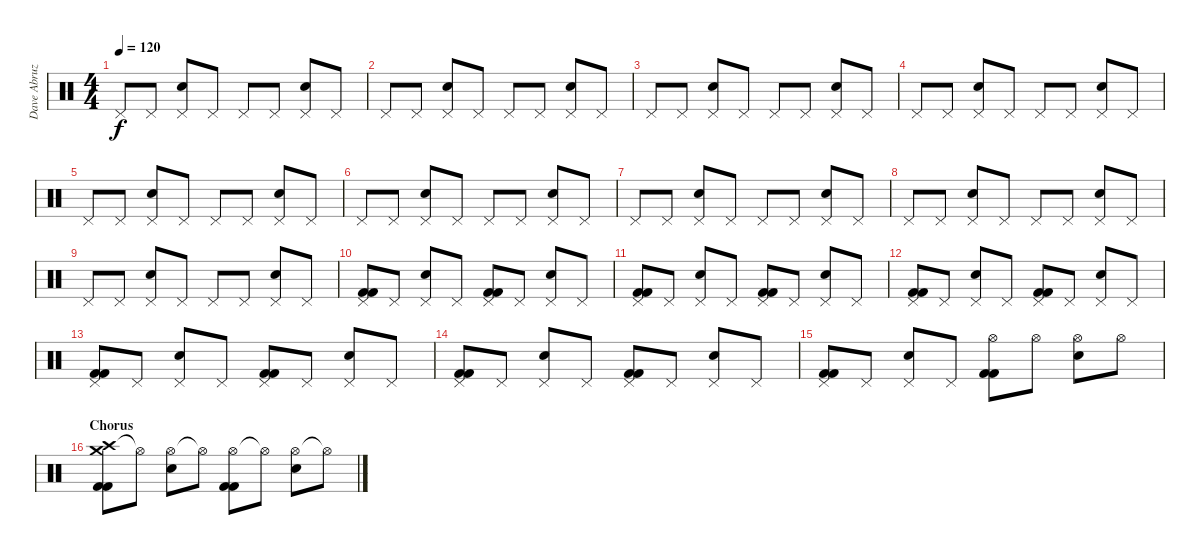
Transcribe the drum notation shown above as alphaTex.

\track ("Dave Abruzzese" "Dave Abruz") {instrument percussion}
\staff {score}
\articulation defaults
\ts (4 4)
\tempo 120
\clef neutral
\ks c "Pedal Hi-Hat (hit)".8{dy f} "Pedal Hi-Hat (hit)".8
("Pedal Hi-Hat (hit)" "Electric Snare (hit)").8 "Pedal Hi-Hat (hit)".8 "Pedal Hi-Hat (hit)".8 "Pedal Hi-Hat (hit)".8 ("Pedal Hi-Hat (hit)" "Electric Snare (hit)").8 "Pedal Hi-Hat (hit)".8 |
"Pedal Hi-Hat (hit)".8 "Pedal Hi-Hat (hit)".8 ("Pedal Hi-Hat (hit)" "Electric Snare (hit)").8 "Pedal Hi-Hat (hit)".8 "Pedal Hi-Hat (hit)".8 "Pedal Hi-Hat (hit)".8 ("Pedal Hi-Hat (hit)" "Electric Snare (hit)").8 "Pedal Hi-Hat (hit)".8 |
"Pedal Hi-Hat (hit)".8 "Pedal Hi-Hat (hit)".8 ("Pedal Hi-Hat (hit)" "Electric Snare (hit)").8 "Pedal Hi-Hat (hit)".8 "Pedal Hi-Hat (hit)".8 "Pedal Hi-Hat (hit)".8 ("Pedal Hi-Hat (hit)" "Electric Snare (hit)").8 "Pedal Hi-Hat (hit)".8 |
"Pedal Hi-Hat (hit)".8 "Pedal Hi-Hat (hit)".8 ("Pedal Hi-Hat (hit)" "Electric Snare (hit)").8 "Pedal Hi-Hat (hit)".8 "Pedal Hi-Hat (hit)".8 "Pedal Hi-Hat (hit)".8 ("Pedal Hi-Hat (hit)" "Electric Snare (hit)").8 "Pedal Hi-Hat (hit)".8 |
"Pedal Hi-Hat (hit)".8 "Pedal Hi-Hat (hit)".8 ("Pedal Hi-Hat (hit)" "Electric Snare (hit)").8 "Pedal Hi-Hat (hit)".8 "Pedal Hi-Hat (hit)".8 "Pedal Hi-Hat (hit)".8 ("Pedal Hi-Hat (hit)" "Electric Snare (hit)").8 "Pedal Hi-Hat (hit)".8 |
"Pedal Hi-Hat (hit)".8 "Pedal Hi-Hat (hit)".8 ("Pedal Hi-Hat (hit)" "Electric Snare (hit)").8 "Pedal Hi-Hat (hit)".8 "Pedal Hi-Hat (hit)".8 "Pedal Hi-Hat (hit)".8 ("Pedal Hi-Hat (hit)" "Electric Snare (hit)").8 "Pedal Hi-Hat (hit)".8 |
"Pedal Hi-Hat (hit)".8 "Pedal Hi-Hat (hit)".8 ("Pedal Hi-Hat (hit)" "Electric Snare (hit)").8 "Pedal Hi-Hat (hit)".8 "Pedal Hi-Hat (hit)".8 "Pedal Hi-Hat (hit)".8 ("Pedal Hi-Hat (hit)" "Electric Snare (hit)").8 "Pedal Hi-Hat (hit)".8 |
\section ("" "")
"Pedal Hi-Hat (hit)".8 "Pedal Hi-Hat (hit)".8 ("Pedal Hi-Hat (hit)" "Electric Snare (hit)").8 "Pedal Hi-Hat (hit)".8 "Pedal Hi-Hat (hit)".8 "Pedal Hi-Hat (hit)".8 ("Pedal Hi-Hat (hit)" "Electric Snare (hit)").8 "Pedal Hi-Hat (hit)".8 |
"Pedal Hi-Hat (hit)".8 "Pedal Hi-Hat (hit)".8 ("Pedal Hi-Hat (hit)" "Electric Snare (hit)").8 "Pedal Hi-Hat (hit)".8 "Pedal Hi-Hat (hit)".8 "Pedal Hi-Hat (hit)".8 ("Pedal Hi-Hat (hit)" "Electric Snare (hit)").8 "Pedal Hi-Hat (hit)".8 |
("Pedal Hi-Hat (hit)" "Kick (hit) 2" "Kick (hit) 2").8 "Pedal Hi-Hat (hit)".8 ("Pedal Hi-Hat (hit)" "Electric Snare (hit)").8 "Pedal Hi-Hat (hit)".8 ("Pedal Hi-Hat (hit)" "Kick (hit) 2" "Kick (hit) 2").8 "Pedal Hi-Hat (hit)".8 ("Pedal Hi-Hat (hit)" "Electric Snare (hit)").8 "Pedal Hi-Hat (hit)".8 |
("Pedal Hi-Hat (hit)" "Kick (hit) 2" "Kick (hit) 2").8 "Pedal Hi-Hat (hit)".8 ("Pedal Hi-Hat (hit)" "Electric Snare (hit)").8 "Pedal Hi-Hat (hit)".8 ("Pedal Hi-Hat (hit)" "Kick (hit) 2" "Kick (hit) 2").8 "Pedal Hi-Hat (hit)".8 ("Pedal Hi-Hat (hit)" "Electric Snare (hit)").8 "Pedal Hi-Hat (hit)".8 |
("Pedal Hi-Hat (hit)" "Kick (hit) 2" "Kick (hit) 2").8 "Pedal Hi-Hat (hit)".8 ("Pedal Hi-Hat (hit)" "Electric Snare (hit)").8 "Pedal Hi-Hat (hit)".8 ("Pedal Hi-Hat (hit)" "Kick (hit) 2" "Kick (hit) 2").8 "Pedal Hi-Hat (hit)".8 ("Pedal Hi-Hat (hit)" "Electric Snare (hit)").8 "Pedal Hi-Hat (hit)".8 |
("Pedal Hi-Hat (hit)" "Kick (hit) 2" "Kick (hit) 2").8 "Pedal Hi-Hat (hit)".8 ("Pedal Hi-Hat (hit)" "Electric Snare (hit)").8 "Pedal Hi-Hat (hit)".8 ("Pedal Hi-Hat (hit)" "Kick (hit) 2" "Kick (hit) 2").8 "Pedal Hi-Hat (hit)".8 ("Pedal Hi-Hat (hit)" "Electric Snare (hit)").8 "Pedal Hi-Hat (hit)".8 |
("Pedal Hi-Hat (hit)" "Kick (hit) 2" "Kick (hit) 2").8 "Pedal Hi-Hat (hit)".8 ("Pedal Hi-Hat (hit)" "Electric Snare (hit)").8 "Pedal Hi-Hat (hit)".8 ("Pedal Hi-Hat (hit)" "Kick (hit) 2" "Kick (hit) 2").8 "Pedal Hi-Hat (hit)".8 ("Pedal Hi-Hat (hit)" "Electric Snare (hit)").8 "Pedal Hi-Hat (hit)".8 |
("Pedal Hi-Hat (hit)" "Kick (hit) 2" "Kick (hit) 2").8 "Pedal Hi-Hat (hit)".8 ("Pedal Hi-Hat (hit)" "Electric Snare (hit)").8 "Pedal Hi-Hat (hit)".8 ("Hi-Hat (open)" "Kick (hit) 2" "Kick (hit) 2").8 "Hi-Hat (open)".8 ("Hi-Hat (open)" "Electric Snare (hit)").8 "Hi-Hat (open)".8 |
\section ("" "Chorus")
("Crash high (hit)" "Crash medium (hit)" "Kick (hit) 2" "Kick (hit) 2").8 "Hi-Hat (open)"{t}.8 ("Hi-Hat (open)" "Electric Snare (hit)").8 "Hi-Hat (open)"{t}.8 ("Hi-Hat (open)" "Kick (hit) 2" "Kick (hit) 2").8 "Hi-Hat (open)"{t}.8 ("Hi-Hat (open)" "Electric Snare (hit)").8 "Hi-Hat (open)"{t}.8
